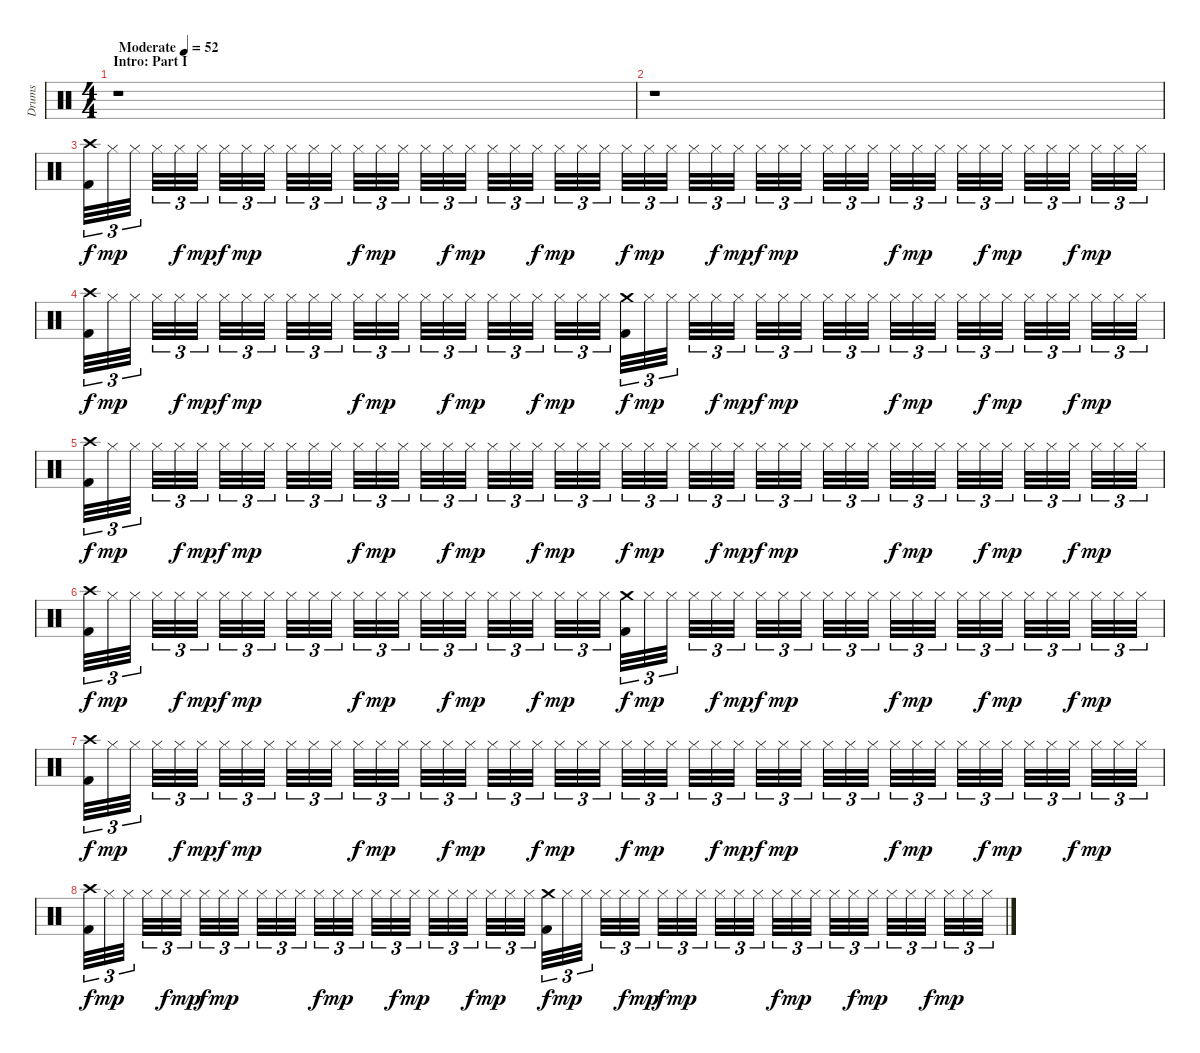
\track ("Drums" "Drums") {instrument percussion}
\staff {score}
\articulation defaults
\ts (4 4)
\section ("" "Intro: Part I")
\tempo (52 "Moderate")
\clef neutral
\ks c
r.1{dy f} |
r.1 |
("Crash high (hit)" "Kick (hit) 2").32{tu (3 2)} "Hi-Hat (closed)".32{tu (3 2) dy mp} "Hi-Hat (closed)".32{tu (3 2) beam splitsecondary} "Hi-Hat (closed)".32{tu (3 2)} "Hi-Hat (closed)".32{tu (3 2) dy f} "Hi-Hat (closed)".32{tu (3 2) dy mp beam splitsecondary} "Hi-Hat (closed)".32{tu (3 2) dy f} "Hi-Hat (closed)".32{tu (3 2) dy mp} "Hi-Hat (closed)".32{tu (3 2) beam splitsecondary} "Hi-Hat (closed)".32{tu (3 2)} "Hi-Hat (closed)".32{tu (3 2)} "Hi-Hat (closed)".32{tu (3 2)} "Hi-Hat (closed)".32{tu (3 2) dy f} "Hi-Hat (closed)".32{tu (3 2) dy mp} "Hi-Hat (closed)".32{tu (3 2) beam splitsecondary} "Hi-Hat (closed)".32{tu (3 2)} "Hi-Hat (closed)".32{tu (3 2) dy f} "Hi-Hat (closed)".32{tu (3 2) dy mp beam splitsecondary} "Hi-Hat (closed)".32{tu (3 2)} "Hi-Hat (closed)".32{tu (3 2)} "Hi-Hat (closed)".32{tu (3 2) dy f beam splitsecondary} "Hi-Hat (closed)".32{tu (3 2) dy mp} "Hi-Hat (closed)".32{tu (3 2)} "Hi-Hat (closed)".32{tu (3 2)} "Hi-Hat (closed)".32{tu (3 2) dy f} "Hi-Hat (closed)".32{tu (3 2) dy mp} "Hi-Hat (closed)".32{tu (3 2) beam splitsecondary} "Hi-Hat (closed)".32{tu (3 2)} "Hi-Hat (closed)".32{tu (3 2) dy f} "Hi-Hat (closed)".32{tu (3 2) dy mp beam splitsecondary} "Hi-Hat (closed)".32{tu (3 2) dy f} "Hi-Hat (closed)".32{tu (3 2) dy mp} "Hi-Hat (closed)".32{tu (3 2) beam splitsecondary} "Hi-Hat (closed)".32{tu (3 2)} "Hi-Hat (closed)".32{tu (3 2)} "Hi-Hat (closed)".32{tu (3 2)} "Hi-Hat (closed)".32{tu (3 2) dy f} "Hi-Hat (closed)".32{tu (3 2) dy mp} "Hi-Hat (closed)".32{tu (3 2) beam splitsecondary} "Hi-Hat (closed)".32{tu (3 2)} "Hi-Hat (closed)".32{tu (3 2) dy f} "Hi-Hat (closed)".32{tu (3 2) dy mp beam splitsecondary} "Hi-Hat (closed)".32{tu (3 2)} "Hi-Hat (closed)".32{tu (3 2)} "Hi-Hat (closed)".32{tu (3 2) dy f beam splitsecondary} "Hi-Hat (closed)".32{tu (3 2) dy mp} "Hi-Hat (closed)".32{tu (3 2)} "Hi-Hat (closed)".32{tu (3 2)} |
("Crash high (hit)" "Kick (hit) 2").32{tu (3 2) dy f} "Hi-Hat (closed)".32{tu (3 2) dy mp} "Hi-Hat (closed)".32{tu (3 2) beam splitsecondary} "Hi-Hat (closed)".32{tu (3 2)} "Hi-Hat (closed)".32{tu (3 2) dy f} "Hi-Hat (closed)".32{tu (3 2) dy mp beam splitsecondary} "Hi-Hat (closed)".32{tu (3 2) dy f} "Hi-Hat (closed)".32{tu (3 2) dy mp} "Hi-Hat (closed)".32{tu (3 2) beam splitsecondary} "Hi-Hat (closed)".32{tu (3 2)} "Hi-Hat (closed)".32{tu (3 2)} "Hi-Hat (closed)".32{tu (3 2)} "Hi-Hat (closed)".32{tu (3 2) dy f} "Hi-Hat (closed)".32{tu (3 2) dy mp} "Hi-Hat (closed)".32{tu (3 2) beam splitsecondary} "Hi-Hat (closed)".32{tu (3 2)} "Hi-Hat (closed)".32{tu (3 2) dy f} "Hi-Hat (closed)".32{tu (3 2) dy mp beam splitsecondary} "Hi-Hat (closed)".32{tu (3 2)} "Hi-Hat (closed)".32{tu (3 2)} "Hi-Hat (closed)".32{tu (3 2) dy f beam splitsecondary} "Hi-Hat (closed)".32{tu (3 2) dy mp} "Hi-Hat (closed)".32{tu (3 2)} "Hi-Hat (closed)".32{tu (3 2)} ("Crash medium (hit)" "Kick (hit) 2").32{tu (3 2) dy f} "Hi-Hat (closed)".32{tu (3 2) dy mp} "Hi-Hat (closed)".32{tu (3 2) beam splitsecondary} "Hi-Hat (closed)".32{tu (3 2)} "Hi-Hat (closed)".32{tu (3 2) dy f} "Hi-Hat (closed)".32{tu (3 2) dy mp beam splitsecondary} "Hi-Hat (closed)".32{tu (3 2) dy f} "Hi-Hat (closed)".32{tu (3 2) dy mp} "Hi-Hat (closed)".32{tu (3 2) beam splitsecondary} "Hi-Hat (closed)".32{tu (3 2)} "Hi-Hat (closed)".32{tu (3 2)} "Hi-Hat (closed)".32{tu (3 2)} "Hi-Hat (closed)".32{tu (3 2) dy f} "Hi-Hat (closed)".32{tu (3 2) dy mp} "Hi-Hat (closed)".32{tu (3 2) beam splitsecondary} "Hi-Hat (closed)".32{tu (3 2)} "Hi-Hat (closed)".32{tu (3 2) dy f} "Hi-Hat (closed)".32{tu (3 2) dy mp beam splitsecondary} "Hi-Hat (closed)".32{tu (3 2)} "Hi-Hat (closed)".32{tu (3 2)} "Hi-Hat (closed)".32{tu (3 2) dy f beam splitsecondary} "Hi-Hat (closed)".32{tu (3 2) dy mp} "Hi-Hat (closed)".32{tu (3 2)} "Hi-Hat (closed)".32{tu (3 2)} |
("Crash high (hit)" "Kick (hit) 2").32{tu (3 2) dy f} "Hi-Hat (closed)".32{tu (3 2) dy mp} "Hi-Hat (closed)".32{tu (3 2) beam splitsecondary} "Hi-Hat (closed)".32{tu (3 2)} "Hi-Hat (closed)".32{tu (3 2) dy f} "Hi-Hat (closed)".32{tu (3 2) dy mp beam splitsecondary} "Hi-Hat (closed)".32{tu (3 2) dy f} "Hi-Hat (closed)".32{tu (3 2) dy mp} "Hi-Hat (closed)".32{tu (3 2) beam splitsecondary} "Hi-Hat (closed)".32{tu (3 2)} "Hi-Hat (closed)".32{tu (3 2)} "Hi-Hat (closed)".32{tu (3 2)} "Hi-Hat (closed)".32{tu (3 2) dy f} "Hi-Hat (closed)".32{tu (3 2) dy mp} "Hi-Hat (closed)".32{tu (3 2) beam splitsecondary} "Hi-Hat (closed)".32{tu (3 2)} "Hi-Hat (closed)".32{tu (3 2) dy f} "Hi-Hat (closed)".32{tu (3 2) dy mp beam splitsecondary} "Hi-Hat (closed)".32{tu (3 2)} "Hi-Hat (closed)".32{tu (3 2)} "Hi-Hat (closed)".32{tu (3 2) dy f beam splitsecondary} "Hi-Hat (closed)".32{tu (3 2) dy mp} "Hi-Hat (closed)".32{tu (3 2)} "Hi-Hat (closed)".32{tu (3 2)} "Hi-Hat (closed)".32{tu (3 2) dy f} "Hi-Hat (closed)".32{tu (3 2) dy mp} "Hi-Hat (closed)".32{tu (3 2) beam splitsecondary} "Hi-Hat (closed)".32{tu (3 2)} "Hi-Hat (closed)".32{tu (3 2) dy f} "Hi-Hat (closed)".32{tu (3 2) dy mp beam splitsecondary} "Hi-Hat (closed)".32{tu (3 2) dy f} "Hi-Hat (closed)".32{tu (3 2) dy mp} "Hi-Hat (closed)".32{tu (3 2) beam splitsecondary} "Hi-Hat (closed)".32{tu (3 2)} "Hi-Hat (closed)".32{tu (3 2)} "Hi-Hat (closed)".32{tu (3 2)} "Hi-Hat (closed)".32{tu (3 2) dy f} "Hi-Hat (closed)".32{tu (3 2) dy mp} "Hi-Hat (closed)".32{tu (3 2) beam splitsecondary} "Hi-Hat (closed)".32{tu (3 2)} "Hi-Hat (closed)".32{tu (3 2) dy f} "Hi-Hat (closed)".32{tu (3 2) dy mp beam splitsecondary} "Hi-Hat (closed)".32{tu (3 2)} "Hi-Hat (closed)".32{tu (3 2)} "Hi-Hat (closed)".32{tu (3 2) dy f beam splitsecondary} "Hi-Hat (closed)".32{tu (3 2) dy mp} "Hi-Hat (closed)".32{tu (3 2)} "Hi-Hat (closed)".32{tu (3 2)} |
("Crash high (hit)" "Kick (hit) 2").32{tu (3 2) dy f} "Hi-Hat (closed)".32{tu (3 2) dy mp} "Hi-Hat (closed)".32{tu (3 2) beam splitsecondary} "Hi-Hat (closed)".32{tu (3 2)} "Hi-Hat (closed)".32{tu (3 2) dy f} "Hi-Hat (closed)".32{tu (3 2) dy mp beam splitsecondary} "Hi-Hat (closed)".32{tu (3 2) dy f} "Hi-Hat (closed)".32{tu (3 2) dy mp} "Hi-Hat (closed)".32{tu (3 2) beam splitsecondary} "Hi-Hat (closed)".32{tu (3 2)} "Hi-Hat (closed)".32{tu (3 2)} "Hi-Hat (closed)".32{tu (3 2)} "Hi-Hat (closed)".32{tu (3 2) dy f} "Hi-Hat (closed)".32{tu (3 2) dy mp} "Hi-Hat (closed)".32{tu (3 2) beam splitsecondary} "Hi-Hat (closed)".32{tu (3 2)} "Hi-Hat (closed)".32{tu (3 2) dy f} "Hi-Hat (closed)".32{tu (3 2) dy mp beam splitsecondary} "Hi-Hat (closed)".32{tu (3 2)} "Hi-Hat (closed)".32{tu (3 2)} "Hi-Hat (closed)".32{tu (3 2) dy f beam splitsecondary} "Hi-Hat (closed)".32{tu (3 2) dy mp} "Hi-Hat (closed)".32{tu (3 2)} "Hi-Hat (closed)".32{tu (3 2)} ("Crash medium (hit)" "Kick (hit) 2").32{tu (3 2) dy f} "Hi-Hat (closed)".32{tu (3 2) dy mp} "Hi-Hat (closed)".32{tu (3 2) beam splitsecondary} "Hi-Hat (closed)".32{tu (3 2)} "Hi-Hat (closed)".32{tu (3 2) dy f} "Hi-Hat (closed)".32{tu (3 2) dy mp beam splitsecondary} "Hi-Hat (closed)".32{tu (3 2) dy f} "Hi-Hat (closed)".32{tu (3 2) dy mp} "Hi-Hat (closed)".32{tu (3 2) beam splitsecondary} "Hi-Hat (closed)".32{tu (3 2)} "Hi-Hat (closed)".32{tu (3 2)} "Hi-Hat (closed)".32{tu (3 2)} "Hi-Hat (closed)".32{tu (3 2) dy f} "Hi-Hat (closed)".32{tu (3 2) dy mp} "Hi-Hat (closed)".32{tu (3 2) beam splitsecondary} "Hi-Hat (closed)".32{tu (3 2)} "Hi-Hat (closed)".32{tu (3 2) dy f} "Hi-Hat (closed)".32{tu (3 2) dy mp beam splitsecondary} "Hi-Hat (closed)".32{tu (3 2)} "Hi-Hat (closed)".32{tu (3 2)} "Hi-Hat (closed)".32{tu (3 2) dy f beam splitsecondary} "Hi-Hat (closed)".32{tu (3 2) dy mp} "Hi-Hat (closed)".32{tu (3 2)} "Hi-Hat (closed)".32{tu (3 2)} |
("Crash high (hit)" "Kick (hit) 2").32{tu (3 2) dy f} "Hi-Hat (closed)".32{tu (3 2) dy mp} "Hi-Hat (closed)".32{tu (3 2) beam splitsecondary} "Hi-Hat (closed)".32{tu (3 2)} "Hi-Hat (closed)".32{tu (3 2) dy f} "Hi-Hat (closed)".32{tu (3 2) dy mp beam splitsecondary} "Hi-Hat (closed)".32{tu (3 2) dy f} "Hi-Hat (closed)".32{tu (3 2) dy mp} "Hi-Hat (closed)".32{tu (3 2) beam splitsecondary} "Hi-Hat (closed)".32{tu (3 2)} "Hi-Hat (closed)".32{tu (3 2)} "Hi-Hat (closed)".32{tu (3 2)} "Hi-Hat (closed)".32{tu (3 2) dy f} "Hi-Hat (closed)".32{tu (3 2) dy mp} "Hi-Hat (closed)".32{tu (3 2) beam splitsecondary} "Hi-Hat (closed)".32{tu (3 2)} "Hi-Hat (closed)".32{tu (3 2) dy f} "Hi-Hat (closed)".32{tu (3 2) dy mp beam splitsecondary} "Hi-Hat (closed)".32{tu (3 2)} "Hi-Hat (closed)".32{tu (3 2)} "Hi-Hat (closed)".32{tu (3 2) dy f beam splitsecondary} "Hi-Hat (closed)".32{tu (3 2) dy mp} "Hi-Hat (closed)".32{tu (3 2)} "Hi-Hat (closed)".32{tu (3 2)} "Hi-Hat (closed)".32{tu (3 2) dy f} "Hi-Hat (closed)".32{tu (3 2) dy mp} "Hi-Hat (closed)".32{tu (3 2) beam splitsecondary} "Hi-Hat (closed)".32{tu (3 2)} "Hi-Hat (closed)".32{tu (3 2) dy f} "Hi-Hat (closed)".32{tu (3 2) dy mp beam splitsecondary} "Hi-Hat (closed)".32{tu (3 2) dy f} "Hi-Hat (closed)".32{tu (3 2) dy mp} "Hi-Hat (closed)".32{tu (3 2) beam splitsecondary} "Hi-Hat (closed)".32{tu (3 2)} "Hi-Hat (closed)".32{tu (3 2)} "Hi-Hat (closed)".32{tu (3 2)} "Hi-Hat (closed)".32{tu (3 2) dy f} "Hi-Hat (closed)".32{tu (3 2) dy mp} "Hi-Hat (closed)".32{tu (3 2) beam splitsecondary} "Hi-Hat (closed)".32{tu (3 2)} "Hi-Hat (closed)".32{tu (3 2) dy f} "Hi-Hat (closed)".32{tu (3 2) dy mp beam splitsecondary} "Hi-Hat (closed)".32{tu (3 2)} "Hi-Hat (closed)".32{tu (3 2)} "Hi-Hat (closed)".32{tu (3 2) dy f beam splitsecondary} "Hi-Hat (closed)".32{tu (3 2) dy mp} "Hi-Hat (closed)".32{tu (3 2)} "Hi-Hat (closed)".32{tu (3 2)} |
("Crash high (hit)" "Kick (hit) 2").32{tu (3 2) dy f} "Hi-Hat (closed)".32{tu (3 2) dy mp} "Hi-Hat (closed)".32{tu (3 2) beam splitsecondary} "Hi-Hat (closed)".32{tu (3 2)} "Hi-Hat (closed)".32{tu (3 2) dy f} "Hi-Hat (closed)".32{tu (3 2) dy mp beam splitsecondary} "Hi-Hat (closed)".32{tu (3 2) dy f} "Hi-Hat (closed)".32{tu (3 2) dy mp} "Hi-Hat (closed)".32{tu (3 2) beam splitsecondary} "Hi-Hat (closed)".32{tu (3 2)} "Hi-Hat (closed)".32{tu (3 2)} "Hi-Hat (closed)".32{tu (3 2)} "Hi-Hat (closed)".32{tu (3 2) dy f} "Hi-Hat (closed)".32{tu (3 2) dy mp} "Hi-Hat (closed)".32{tu (3 2) beam splitsecondary} "Hi-Hat (closed)".32{tu (3 2)} "Hi-Hat (closed)".32{tu (3 2) dy f} "Hi-Hat (closed)".32{tu (3 2) dy mp beam splitsecondary} "Hi-Hat (closed)".32{tu (3 2)} "Hi-Hat (closed)".32{tu (3 2)} "Hi-Hat (closed)".32{tu (3 2) dy f beam splitsecondary} "Hi-Hat (closed)".32{tu (3 2) dy mp} "Hi-Hat (closed)".32{tu (3 2)} "Hi-Hat (closed)".32{tu (3 2)} ("Crash medium (hit)" "Kick (hit) 2").32{tu (3 2) dy f} "Hi-Hat (closed)".32{tu (3 2) dy mp} "Hi-Hat (closed)".32{tu (3 2) beam splitsecondary} "Hi-Hat (closed)".32{tu (3 2)} "Hi-Hat (closed)".32{tu (3 2) dy f} "Hi-Hat (closed)".32{tu (3 2) dy mp beam splitsecondary} "Hi-Hat (closed)".32{tu (3 2) dy f} "Hi-Hat (closed)".32{tu (3 2) dy mp} "Hi-Hat (closed)".32{tu (3 2) beam splitsecondary} "Hi-Hat (closed)".32{tu (3 2)} "Hi-Hat (closed)".32{tu (3 2)} "Hi-Hat (closed)".32{tu (3 2)} "Hi-Hat (closed)".32{tu (3 2) dy f} "Hi-Hat (closed)".32{tu (3 2) dy mp} "Hi-Hat (closed)".32{tu (3 2) beam splitsecondary} "Hi-Hat (closed)".32{tu (3 2)} "Hi-Hat (closed)".32{tu (3 2) dy f} "Hi-Hat (closed)".32{tu (3 2) dy mp beam splitsecondary} "Hi-Hat (closed)".32{tu (3 2)} "Hi-Hat (closed)".32{tu (3 2)} "Hi-Hat (closed)".32{tu (3 2) dy f beam splitsecondary} "Hi-Hat (closed)".32{tu (3 2) dy mp} "Hi-Hat (closed)".32{tu (3 2)} "Hi-Hat (closed)".32{tu (3 2)}
